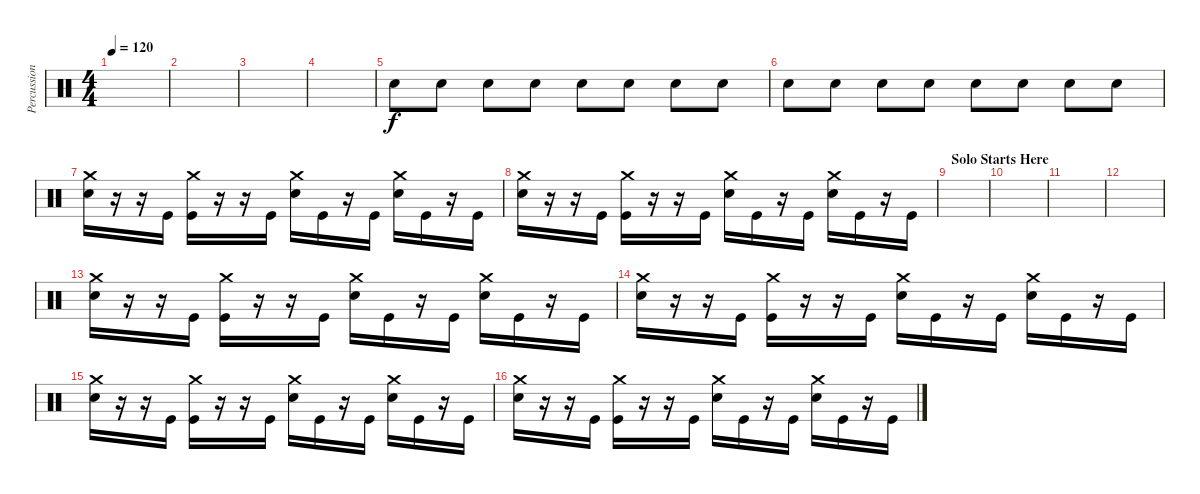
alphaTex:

\track ("Percussion" "Percussion") {instrument percussion}
\staff {score}
\articulation defaults
\ts (4 4)
\tempo 120
\clef neutral
\ks c
|
|
|
|
"Electric Snare (hit)".8{volume 13} "Electric Snare (hit)".8 "Electric Snare (hit)".8 "Electric Snare (hit)".8 "Electric Snare (hit)".8 "Electric Snare (hit)".8 "Electric Snare (hit)".8 "Electric Snare (hit)".8 |
"Electric Snare (hit)".8 "Electric Snare (hit)".8 "Electric Snare (hit)".8 "Electric Snare (hit)".8 "Electric Snare (hit)".8 "Electric Snare (hit)".8 "Electric Snare (hit)".8 "Electric Snare (hit)".8 |
("Crash medium (hit)" "Electric Snare (hit)").16 r.16 r.16 "Kick (hit)".16 ("Crash medium (hit)" "Kick (hit)").16 r.16 r.16 "Kick (hit)".16 ("Crash medium (hit)" "Electric Snare (hit)").16 "Kick (hit)".16 r.16 "Kick (hit)".16 ("Crash medium (hit)" "Electric Snare (hit)").16 "Kick (hit)".16 r.16 "Kick (hit)".16 |
("Crash medium (hit)" "Electric Snare (hit)").16 r.16 r.16 "Kick (hit)".16 ("Crash medium (hit)" "Kick (hit)").16 r.16 r.16 "Kick (hit)".16 ("Crash medium (hit)" "Electric Snare (hit)").16 "Kick (hit)".16 r.16 "Kick (hit)".16 ("Crash medium (hit)" "Electric Snare (hit)").16 "Kick (hit)".16 r.16 "Kick (hit)".16 |
\section ("" "Solo Starts Here")
|
|
|
|
("Crash medium (hit)" "Electric Snare (hit)").16 r.16 r.16 "Kick (hit)".16 ("Crash medium (hit)" "Kick (hit)").16 r.16 r.16 "Kick (hit)".16 ("Crash medium (hit)" "Electric Snare (hit)").16 "Kick (hit)".16 r.16 "Kick (hit)".16 ("Crash medium (hit)" "Electric Snare (hit)").16 "Kick (hit)".16 r.16 "Kick (hit)".16 |
("Crash medium (hit)" "Electric Snare (hit)").16 r.16 r.16 "Kick (hit)".16 ("Crash medium (hit)" "Kick (hit)").16 r.16 r.16 "Kick (hit)".16 ("Crash medium (hit)" "Electric Snare (hit)").16 "Kick (hit)".16 r.16 "Kick (hit)".16 ("Crash medium (hit)" "Electric Snare (hit)").16 "Kick (hit)".16 r.16 "Kick (hit)".16 |
("Crash medium (hit)" "Electric Snare (hit)").16 r.16 r.16 "Kick (hit)".16 ("Crash medium (hit)" "Kick (hit)").16 r.16 r.16 "Kick (hit)".16 ("Crash medium (hit)" "Electric Snare (hit)").16 "Kick (hit)".16 r.16 "Kick (hit)".16 ("Crash medium (hit)" "Electric Snare (hit)").16 "Kick (hit)".16 r.16 "Kick (hit)".16 |
("Crash medium (hit)" "Electric Snare (hit)").16 r.16 r.16 "Kick (hit)".16 ("Crash medium (hit)" "Kick (hit)").16 r.16 r.16 "Kick (hit)".16 ("Crash medium (hit)" "Electric Snare (hit)").16 "Kick (hit)".16 r.16 "Kick (hit)".16 ("Crash medium (hit)" "Electric Snare (hit)").16 "Kick (hit)".16 r.16 "Kick (hit)".16
